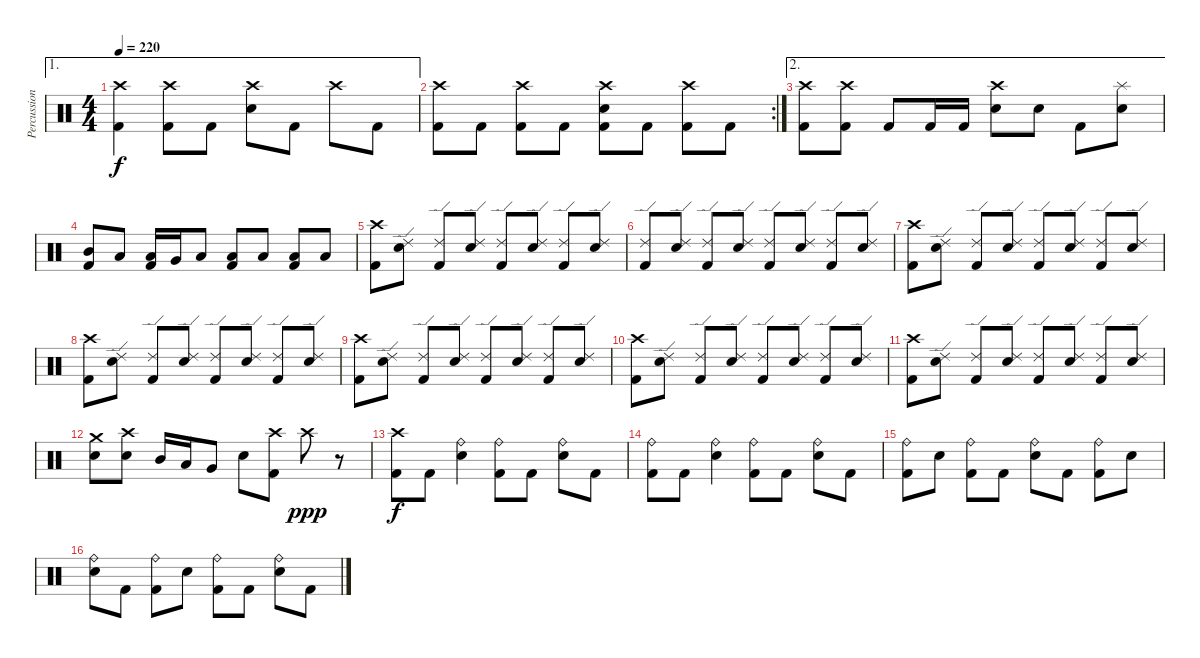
\track ("Percussions" "Percussion") {instrument percussion}
\staff {score}
\articulation defaults
\ae 1
\ts (4 4)
\tempo 220
\clef neutral
\ks c
("Crash high (hit)" "Kick (hit) 2").4{dy f} ("Crash high (hit)" "Kick (hit) 2").8 "Kick (hit) 2".8 ("Crash high (hit)" "Snare (hit) 2").8 "Kick (hit) 2".8 "Crash high (hit)".8 "Kick (hit) 2".8 |
\rc 2
("Crash high (hit)" "Kick (hit) 2").8 "Kick (hit) 2".8 ("Crash high (hit)" "Kick (hit) 2").8 "Kick (hit) 2".8 ("Crash high (hit)" "Snare (hit) 2" "Kick (hit) 2").8 "Kick (hit) 2".8 ("Crash high (hit)" "Kick (hit) 2").8 "Kick (hit) 2".8 |
\ae 2
("Crash high (hit)" "Kick (hit) 2").8 ("Crash high (hit)" "Kick (hit) 2").8 "Kick (hit) 2".8 "Kick (hit) 2".16 "Kick (hit) 2".16 ("Crash high (hit)" "Snare (hit) 2").8 "Snare (hit) 2".8 "Kick (hit) 2".8 ("Splash (hit)" "Snare (hit) 2").8 |
("Mid Tom (hit)" "Kick (hit) 2").8 "Low Tom (hit)".8 ("Low Tom (hit)" "Kick (hit) 2").16 "Very Low Tom (hit)".16 "Low Floor Tom (hit)".8 ("Low Floor Tom (hit)" "Kick (hit) 2").8 "Low Floor Tom (hit)".8 ("Low Floor Tom (hit)" "Kick (hit) 2").8 "Low Floor Tom (hit)".8 |
("Crash high (hit)" "Kick (hit) 2").8 ("Ride (edge) 2" "Snare (hit) 2").8 ("Ride (edge) 2" "Kick (hit) 2").8 ("Ride (edge) 2" "Snare (hit) 2").8 ("Ride (edge) 2" "Kick (hit) 2").8 ("Ride (edge) 2" "Snare (hit) 2").8 ("Ride (edge) 2" "Kick (hit) 2").8 ("Ride (edge) 2" "Snare (hit) 2").8 |
("Ride (edge) 2" "Kick (hit) 2").8 ("Ride (edge) 2" "Snare (hit) 2").8 ("Ride (edge) 2" "Kick (hit) 2").8 ("Ride (edge) 2" "Snare (hit) 2").8 ("Ride (edge) 2" "Kick (hit) 2").8 ("Ride (edge) 2" "Snare (hit) 2").8 ("Ride (edge) 2" "Kick (hit) 2").8 ("Ride (edge) 2" "Snare (hit) 2").8 |
("Crash high (hit)" "Kick (hit) 2").8 ("Ride (edge) 2" "Snare (hit) 2").8 ("Ride (edge) 2" "Kick (hit) 2").8 ("Ride (edge) 2" "Snare (hit) 2").8 ("Ride (edge) 2" "Kick (hit) 2").8 ("Ride (edge) 2" "Snare (hit) 2").8 ("Ride (edge) 2" "Kick (hit) 2").8 ("Ride (edge) 2" "Snare (hit) 2").8 |
("Crash high (hit)" "Kick (hit) 2").8 ("Ride (edge) 2" "Snare (hit) 2").8 ("Ride (edge) 2" "Kick (hit) 2").8 ("Ride (edge) 2" "Snare (hit) 2").8 ("Ride (edge) 2" "Kick (hit) 2").8 ("Ride (edge) 2" "Snare (hit) 2").8 ("Ride (edge) 2" "Kick (hit) 2").8 ("Ride (edge) 2" "Snare (hit) 2").8 |
("Crash high (hit)" "Kick (hit) 2").8 ("Ride (edge) 2" "Snare (hit) 2").8 ("Ride (edge) 2" "Kick (hit) 2").8 ("Ride (edge) 2" "Snare (hit) 2").8 ("Ride (edge) 2" "Kick (hit) 2").8 ("Ride (edge) 2" "Snare (hit) 2").8 ("Ride (edge) 2" "Kick (hit) 2").8 ("Ride (edge) 2" "Snare (hit) 2").8 |
("Crash high (hit)" "Kick (hit) 2").8 ("Ride (edge) 2" "Snare (hit) 2").8 ("Ride (edge) 2" "Kick (hit) 2").8 ("Ride (edge) 2" "Snare (hit) 2").8 ("Ride (edge) 2" "Kick (hit) 2").8 ("Ride (edge) 2" "Snare (hit) 2").8 ("Ride (edge) 2" "Kick (hit) 2").8 ("Ride (edge) 2" "Snare (hit) 2").8 |
("Crash high (hit)" "Kick (hit) 2").8 ("Ride (edge) 2" "Snare (hit) 2").8 ("Ride (edge) 2" "Kick (hit) 2").8 ("Ride (edge) 2" "Snare (hit) 2").8 ("Ride (edge) 2" "Kick (hit) 2").8 ("Ride (edge) 2" "Snare (hit) 2").8 ("Ride (edge) 2" "Kick (hit) 2").8 ("Ride (edge) 2" "Snare (hit) 2").8 |
("Crash medium (hit)" "Snare (hit) 2").8 ("Crash high (hit)" "Snare (hit) 2").8 "Mid Tom (hit)".16 "Low Tom (hit)".16 "Very Low Tom (hit)".8 "Snare (hit) 2".8 ("Crash high (hit)" "Kick (hit) 2").8 "Crash high (hit)".8{dy ppp} r.8 |
("Crash high (hit)" "Kick (hit) 2").8{dy f} "Kick (hit) 2".8 ("Ride (bell)" "Snare (hit) 2").4 ("Ride (bell)" "Kick (hit) 2").8 "Kick (hit) 2".8 ("Ride (bell)" "Snare (hit) 2").8 "Kick (hit) 2".8 |
("Ride (bell)" "Kick (hit) 2").8 "Kick (hit) 2".8 ("Ride (bell)" "Snare (hit) 2").4 ("Ride (bell)" "Kick (hit) 2").8 "Kick (hit) 2".8 ("Ride (bell)" "Snare (hit) 2").8 "Kick (hit) 2".8 |
("Ride (bell)" "Kick (hit) 2").8 "Snare (hit) 2".8 ("Ride (bell)" "Kick (hit) 2").8 "Kick (hit) 2".8 ("Ride (bell)" "Snare (hit) 2").8 "Kick (hit) 2".8 ("Ride (bell)" "Kick (hit) 2").8 "Snare (hit) 2".8 |
("Ride (bell)" "Snare (hit) 2").8 "Kick (hit) 2".8 ("Ride (bell)" "Kick (hit) 2").8 "Snare (hit) 2".8 ("Ride (bell)" "Kick (hit) 2").8 "Kick (hit) 2".8 ("Ride (bell)" "Snare (hit) 2").8 "Kick (hit) 2".8
